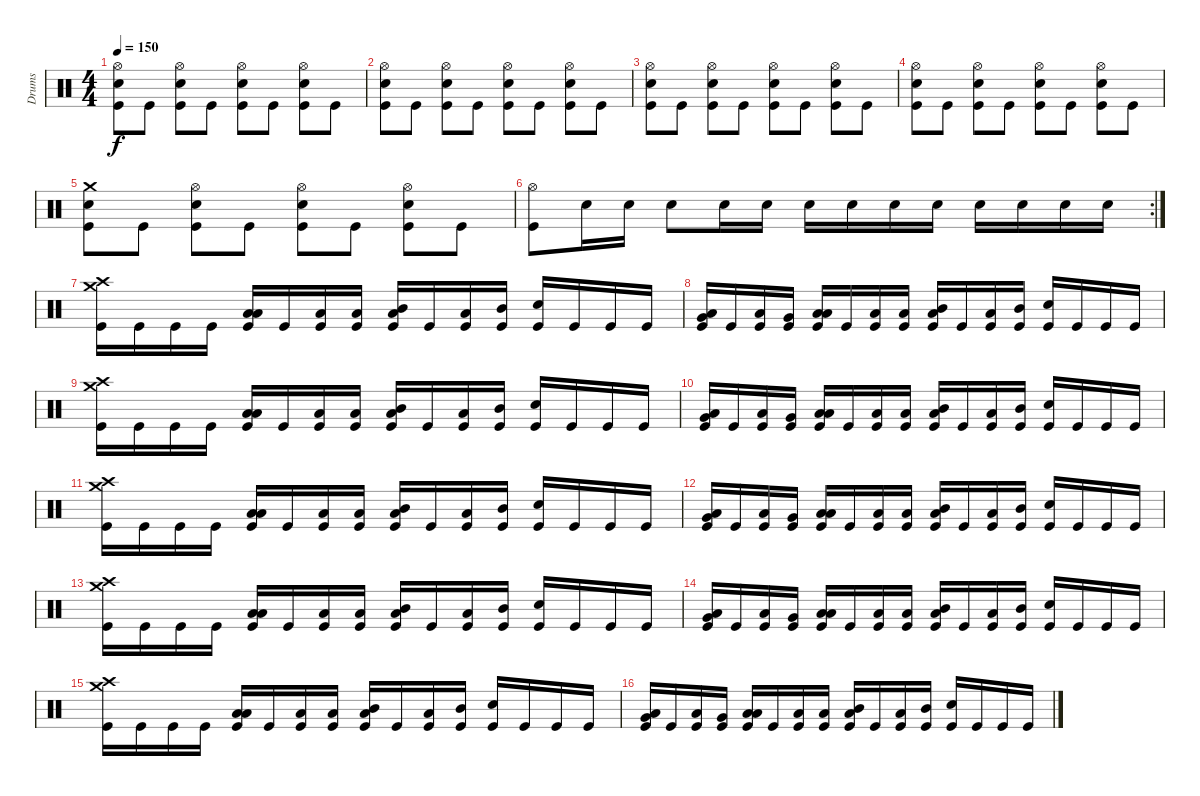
\track ("Drums" "Drums") {instrument percussion}
\staff {score}
\articulation defaults
\ts (4 4)
\tempo 150
\clef neutral
\ks c
("Hi-Hat (open)" "Snare (hit) 2" "Kick (hit)").8{dy f} "Kick (hit)".8 ("Hi-Hat (open)" "Snare (hit) 2" "Kick (hit)").8 "Kick (hit)".8 ("Hi-Hat (open)" "Snare (hit) 2" "Kick (hit)").8 "Kick (hit)".8 ("Hi-Hat (open)" "Snare (hit) 2" "Kick (hit)").8 "Kick (hit)".8 |
("Hi-Hat (open)" "Snare (hit) 2" "Kick (hit)").8 "Kick (hit)".8 ("Hi-Hat (open)" "Snare (hit) 2" "Kick (hit)").8 "Kick (hit)".8 ("Hi-Hat (open)" "Snare (hit) 2" "Kick (hit)").8 "Kick (hit)".8 ("Hi-Hat (open)" "Snare (hit) 2" "Kick (hit)").8 "Kick (hit)".8 |
("Hi-Hat (open)" "Snare (hit) 2" "Kick (hit)").8 "Kick (hit)".8 ("Hi-Hat (open)" "Snare (hit) 2" "Kick (hit)").8 "Kick (hit)".8 ("Hi-Hat (open)" "Snare (hit) 2" "Kick (hit)").8 "Kick (hit)".8 ("Hi-Hat (open)" "Snare (hit) 2" "Kick (hit)").8 "Kick (hit)".8 |
("Hi-Hat (open)" "Snare (hit) 2" "Kick (hit)").8 "Kick (hit)".8 ("Hi-Hat (open)" "Snare (hit) 2" "Kick (hit)").8 "Kick (hit)".8 ("Hi-Hat (open)" "Snare (hit) 2" "Kick (hit)").8 "Kick (hit)".8 ("Hi-Hat (open)" "Snare (hit) 2" "Kick (hit)").8 "Kick (hit)".8 |
("Crash medium (hit)" "Snare (hit) 2" "Kick (hit)").8 "Kick (hit)".8 ("Hi-Hat (open)" "Snare (hit) 2" "Kick (hit)").8 "Kick (hit)".8 ("Hi-Hat (open)" "Snare (hit) 2" "Kick (hit)").8 "Kick (hit)".8 ("Hi-Hat (open)" "Snare (hit) 2" "Kick (hit)").8 "Kick (hit)".8 |
\rc 2
("Hi-Hat (open)" "Kick (hit)").8 "Snare (hit) 2".16 "Snare (hit) 2".16 "Snare (hit) 2".8 "Snare (hit) 2".16 "Snare (hit) 2".16 "Snare (hit) 2".16 "Snare (hit) 2".16 "Snare (hit) 2".16 "Snare (hit) 2".16 "Snare (hit) 2".16 "Snare (hit) 2".16 "Snare (hit) 2".16 "Snare (hit) 2".16 |
("Crash medium (hit)" "Crash high (hit)" "Kick (hit)").16 "Kick (hit)".16 "Kick (hit)".16 "Kick (hit)".16 ("Low Floor Tom (hit)" "Low Tom (hit)" "Kick (hit)").16 "Kick (hit)".16 ("Low Floor Tom (hit)" "Kick (hit)").16 ("Low Tom (hit)" "Kick (hit)").16 ("Low Tom (hit)" "Mid Tom (hit)" "Kick (hit)").16 "Kick (hit)".16 ("Low Tom (hit)" "Kick (hit)").16 ("Mid Tom (hit)" "Kick (hit)").16 ("Snare (hit) 2" "Kick (hit)").16 "Kick (hit)".16 "Kick (hit)".16 "Kick (hit)".16 |
("Low Floor Tom (hit)" "Very Low Tom (hit)" "Kick (hit)").16 "Kick (hit)".16 ("Low Floor Tom (hit)" "Kick (hit)").16 ("Very Low Tom (hit)" "Kick (hit)").16 ("Low Floor Tom (hit)" "Low Tom (hit)" "Kick (hit)").16 "Kick (hit)".16 ("Low Floor Tom (hit)" "Kick (hit)").16 ("Low Tom (hit)" "Kick (hit)").16 ("Low Tom (hit)" "Mid Tom (hit)" "Kick (hit)").16 "Kick (hit)".16 ("Low Tom (hit)" "Kick (hit)").16 ("Mid Tom (hit)" "Kick (hit)").16 ("Snare (hit) 2" "Kick (hit)").16 "Kick (hit)".16 "Kick (hit)".16 "Kick (hit)".16 |
("Crash medium (hit)" "Crash high (hit)" "Kick (hit)").16 "Kick (hit)".16 "Kick (hit)".16 "Kick (hit)".16 ("Low Floor Tom (hit)" "Low Tom (hit)" "Kick (hit)").16 "Kick (hit)".16 ("Low Floor Tom (hit)" "Kick (hit)").16 ("Low Tom (hit)" "Kick (hit)").16 ("Low Tom (hit)" "Mid Tom (hit)" "Kick (hit)").16 "Kick (hit)".16 ("Low Tom (hit)" "Kick (hit)").16 ("Mid Tom (hit)" "Kick (hit)").16 ("Snare (hit) 2" "Kick (hit)").16 "Kick (hit)".16 "Kick (hit)".16 "Kick (hit)".16 |
("Low Floor Tom (hit)" "Very Low Tom (hit)" "Kick (hit)").16 "Kick (hit)".16 ("Low Floor Tom (hit)" "Kick (hit)").16 ("Very Low Tom (hit)" "Kick (hit)").16 ("Low Floor Tom (hit)" "Low Tom (hit)" "Kick (hit)").16 "Kick (hit)".16 ("Low Floor Tom (hit)" "Kick (hit)").16 ("Low Tom (hit)" "Kick (hit)").16 ("Low Tom (hit)" "Mid Tom (hit)" "Kick (hit)").16 "Kick (hit)".16 ("Low Tom (hit)" "Kick (hit)").16 ("Mid Tom (hit)" "Kick (hit)").16 ("Snare (hit) 2" "Kick (hit)").16 "Kick (hit)".16 "Kick (hit)".16 "Kick (hit)".16 |
("Crash medium (hit)" "Crash high (hit)" "Kick (hit)").16 "Kick (hit)".16 "Kick (hit)".16 "Kick (hit)".16 ("Low Floor Tom (hit)" "Low Tom (hit)" "Kick (hit)").16 "Kick (hit)".16 ("Low Floor Tom (hit)" "Kick (hit)").16 ("Low Tom (hit)" "Kick (hit)").16 ("Low Tom (hit)" "Mid Tom (hit)" "Kick (hit)").16 "Kick (hit)".16 ("Low Tom (hit)" "Kick (hit)").16 ("Mid Tom (hit)" "Kick (hit)").16 ("Snare (hit) 2" "Kick (hit)").16 "Kick (hit)".16 "Kick (hit)".16 "Kick (hit)".16 |
("Low Floor Tom (hit)" "Very Low Tom (hit)" "Kick (hit)").16 "Kick (hit)".16 ("Low Floor Tom (hit)" "Kick (hit)").16 ("Very Low Tom (hit)" "Kick (hit)").16 ("Low Floor Tom (hit)" "Low Tom (hit)" "Kick (hit)").16 "Kick (hit)".16 ("Low Floor Tom (hit)" "Kick (hit)").16 ("Low Tom (hit)" "Kick (hit)").16 ("Low Tom (hit)" "Mid Tom (hit)" "Kick (hit)").16 "Kick (hit)".16 ("Low Tom (hit)" "Kick (hit)").16 ("Mid Tom (hit)" "Kick (hit)").16 ("Snare (hit) 2" "Kick (hit)").16 "Kick (hit)".16 "Kick (hit)".16 "Kick (hit)".16 |
("Crash medium (hit)" "Crash high (hit)" "Kick (hit)").16 "Kick (hit)".16 "Kick (hit)".16 "Kick (hit)".16 ("Low Floor Tom (hit)" "Low Tom (hit)" "Kick (hit)").16 "Kick (hit)".16 ("Low Floor Tom (hit)" "Kick (hit)").16 ("Low Tom (hit)" "Kick (hit)").16 ("Low Tom (hit)" "Mid Tom (hit)" "Kick (hit)").16 "Kick (hit)".16 ("Low Tom (hit)" "Kick (hit)").16 ("Mid Tom (hit)" "Kick (hit)").16 ("Snare (hit) 2" "Kick (hit)").16 "Kick (hit)".16 "Kick (hit)".16 "Kick (hit)".16 |
("Low Floor Tom (hit)" "Very Low Tom (hit)" "Kick (hit)").16 "Kick (hit)".16 ("Low Floor Tom (hit)" "Kick (hit)").16 ("Very Low Tom (hit)" "Kick (hit)").16 ("Low Floor Tom (hit)" "Low Tom (hit)" "Kick (hit)").16 "Kick (hit)".16 ("Low Floor Tom (hit)" "Kick (hit)").16 ("Low Tom (hit)" "Kick (hit)").16 ("Low Tom (hit)" "Mid Tom (hit)" "Kick (hit)").16 "Kick (hit)".16 ("Low Tom (hit)" "Kick (hit)").16 ("Mid Tom (hit)" "Kick (hit)").16 ("Snare (hit) 2" "Kick (hit)").16 "Kick (hit)".16 "Kick (hit)".16 "Kick (hit)".16 |
("Crash medium (hit)" "Crash high (hit)" "Kick (hit)").16 "Kick (hit)".16 "Kick (hit)".16 "Kick (hit)".16 ("Low Floor Tom (hit)" "Low Tom (hit)" "Kick (hit)").16 "Kick (hit)".16 ("Low Floor Tom (hit)" "Kick (hit)").16 ("Low Tom (hit)" "Kick (hit)").16 ("Low Tom (hit)" "Mid Tom (hit)" "Kick (hit)").16 "Kick (hit)".16 ("Low Tom (hit)" "Kick (hit)").16 ("Mid Tom (hit)" "Kick (hit)").16 ("Snare (hit) 2" "Kick (hit)").16 "Kick (hit)".16 "Kick (hit)".16 "Kick (hit)".16 |
("Low Floor Tom (hit)" "Very Low Tom (hit)" "Kick (hit)").16 "Kick (hit)".16 ("Low Floor Tom (hit)" "Kick (hit)").16 ("Very Low Tom (hit)" "Kick (hit)").16 ("Low Floor Tom (hit)" "Low Tom (hit)" "Kick (hit)").16 "Kick (hit)".16 ("Low Floor Tom (hit)" "Kick (hit)").16 ("Low Tom (hit)" "Kick (hit)").16 ("Low Tom (hit)" "Mid Tom (hit)" "Kick (hit)").16 "Kick (hit)".16 ("Low Tom (hit)" "Kick (hit)").16 ("Mid Tom (hit)" "Kick (hit)").16 ("Snare (hit) 2" "Kick (hit)").16 "Kick (hit)".16 "Kick (hit)".16 "Kick (hit)".16
